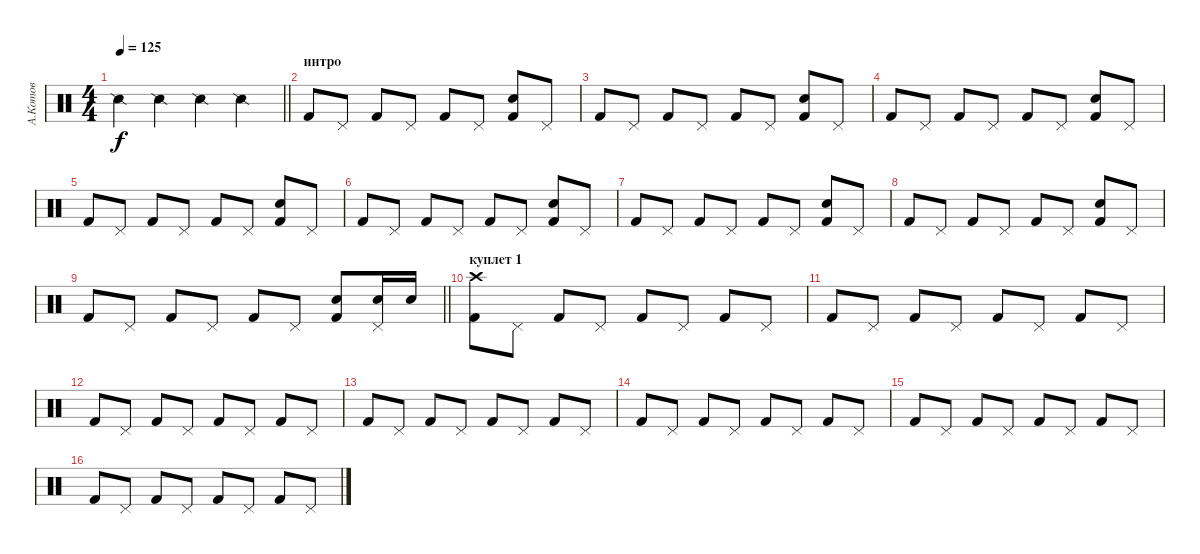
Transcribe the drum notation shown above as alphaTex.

\track ("А.Котов" "А.Котов") {instrument percussion}
\staff {score}
\articulation defaults
\ts (4 4)
\tempo 125
\clef neutral
\barLineRight lightlight
\ks c "Snare (side stick) 2".4{dy f} "Snare (side stick) 2".4 "Snare (side stick) 2".4 "Snare (side stick) 2".4
|
\section ("" "интро")
"Kick (hit) 2".8 "Pedal Hi-Hat (hit)".8 "Kick (hit) 2".8 "Pedal Hi-Hat (hit)".8 "Kick (hit) 2".8 "Pedal Hi-Hat (hit)".8 ("Kick (hit) 2" "Snare (hit) 2").8 "Pedal Hi-Hat (hit)".8 |
"Kick (hit) 2".8 "Pedal Hi-Hat (hit)".8 "Kick (hit) 2".8 "Pedal Hi-Hat (hit)".8 "Kick (hit) 2".8 "Pedal Hi-Hat (hit)".8 ("Kick (hit) 2" "Snare (hit) 2").8 "Pedal Hi-Hat (hit)".8 |
"Kick (hit) 2".8 "Pedal Hi-Hat (hit)".8 "Kick (hit) 2".8 "Pedal Hi-Hat (hit)".8 "Kick (hit) 2".8 "Pedal Hi-Hat (hit)".8 ("Kick (hit) 2" "Snare (hit) 2").8 "Pedal Hi-Hat (hit)".8 |
"Kick (hit) 2".8 "Pedal Hi-Hat (hit)".8 "Kick (hit) 2".8 "Pedal Hi-Hat (hit)".8 "Kick (hit) 2".8 "Pedal Hi-Hat (hit)".8 ("Kick (hit) 2" "Snare (hit) 2").8 "Pedal Hi-Hat (hit)".8 |
"Kick (hit) 2".8 "Pedal Hi-Hat (hit)".8 "Kick (hit) 2".8 "Pedal Hi-Hat (hit)".8 "Kick (hit) 2".8 "Pedal Hi-Hat (hit)".8 ("Kick (hit) 2" "Snare (hit) 2").8 "Pedal Hi-Hat (hit)".8 |
"Kick (hit) 2".8 "Pedal Hi-Hat (hit)".8 "Kick (hit) 2".8 "Pedal Hi-Hat (hit)".8 "Kick (hit) 2".8 "Pedal Hi-Hat (hit)".8 ("Kick (hit) 2" "Snare (hit) 2").8 "Pedal Hi-Hat (hit)".8 |
"Kick (hit) 2".8 "Pedal Hi-Hat (hit)".8 "Kick (hit) 2".8 "Pedal Hi-Hat (hit)".8 "Kick (hit) 2".8 "Pedal Hi-Hat (hit)".8 ("Kick (hit) 2" "Snare (hit) 2").8 "Pedal Hi-Hat (hit)".8 |
\barLineRight lightlight "Kick (hit) 2".8 "Pedal Hi-Hat (hit)".8 "Kick (hit) 2".8 "Pedal Hi-Hat (hit)".8 "Kick (hit) 2".8 "Pedal Hi-Hat (hit)".8
("Kick (hit) 2" "Snare (hit) 2").8 ("Pedal Hi-Hat (hit)" "Snare (hit) 2").16 "Snare (hit) 2".16 |
\section ("" "куплет 1")
("Kick (hit) 2" "Crash high (hit)").8 "Pedal Hi-Hat (hit)".8 "Kick (hit) 2".8 "Pedal Hi-Hat (hit)".8 "Kick (hit) 2".8 "Pedal Hi-Hat (hit)".8 "Kick (hit) 2".8 "Pedal Hi-Hat (hit)".8 |
"Kick (hit) 2".8 "Pedal Hi-Hat (hit)".8 "Kick (hit) 2".8 "Pedal Hi-Hat (hit)".8 "Kick (hit) 2".8 "Pedal Hi-Hat (hit)".8 "Kick (hit) 2".8 "Pedal Hi-Hat (hit)".8 |
"Kick (hit) 2".8 "Pedal Hi-Hat (hit)".8 "Kick (hit) 2".8 "Pedal Hi-Hat (hit)".8 "Kick (hit) 2".8 "Pedal Hi-Hat (hit)".8 "Kick (hit) 2".8 "Pedal Hi-Hat (hit)".8 |
"Kick (hit) 2".8 "Pedal Hi-Hat (hit)".8 "Kick (hit) 2".8 "Pedal Hi-Hat (hit)".8 "Kick (hit) 2".8 "Pedal Hi-Hat (hit)".8 "Kick (hit) 2".8 "Pedal Hi-Hat (hit)".8 |
"Kick (hit) 2".8 "Pedal Hi-Hat (hit)".8 "Kick (hit) 2".8 "Pedal Hi-Hat (hit)".8 "Kick (hit) 2".8 "Pedal Hi-Hat (hit)".8 "Kick (hit) 2".8 "Pedal Hi-Hat (hit)".8 |
"Kick (hit) 2".8 "Pedal Hi-Hat (hit)".8 "Kick (hit) 2".8 "Pedal Hi-Hat (hit)".8 "Kick (hit) 2".8 "Pedal Hi-Hat (hit)".8 "Kick (hit) 2".8 "Pedal Hi-Hat (hit)".8 |
"Kick (hit) 2".8 "Pedal Hi-Hat (hit)".8 "Kick (hit) 2".8 "Pedal Hi-Hat (hit)".8 "Kick (hit) 2".8 "Pedal Hi-Hat (hit)".8 "Kick (hit) 2".8 "Pedal Hi-Hat (hit)".8
